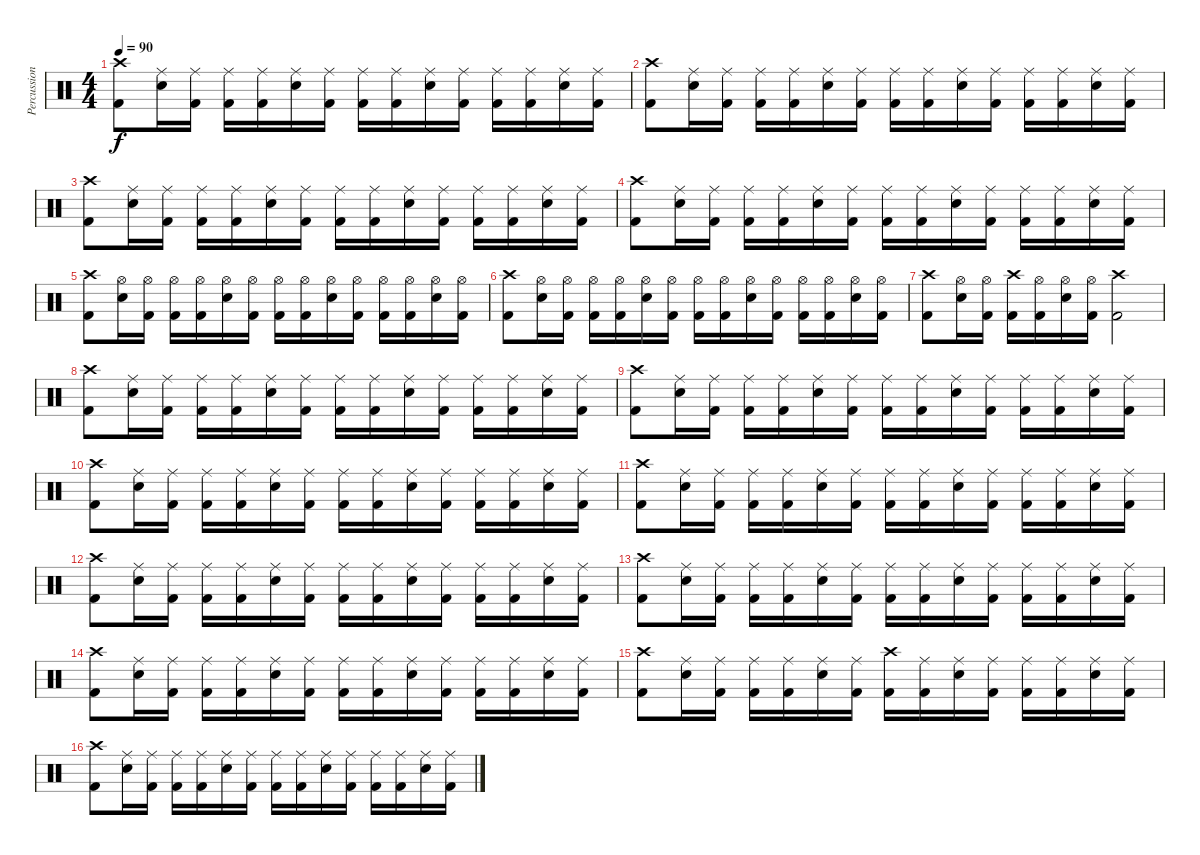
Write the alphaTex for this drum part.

\track ("Percussions" "Percussion") {instrument percussion}
\staff {score}
\articulation defaults
\ts (4 4)
\tempo 90
\clef neutral
\ks c
("Crash high (hit)" "Kick (hit) 2").8{dy f} ("Ride (middle)" "Snare (hit) 2").16 ("Ride (middle)" "Kick (hit) 2").16 ("Ride (middle)" "Kick (hit) 2").16 ("Ride (middle)" "Kick (hit) 2").16 ("Ride (middle)" "Snare (hit) 2").16 ("Ride (middle)" "Kick (hit) 2").16 ("Ride (middle)" "Kick (hit) 2").16 ("Ride (middle)" "Kick (hit) 2").16 ("Ride (middle)" "Snare (hit) 2").16 ("Ride (middle)" "Kick (hit) 2").16 ("Ride (middle)" "Kick (hit) 2").16 ("Ride (middle)" "Kick (hit) 2").16 ("Ride (middle)" "Snare (hit) 2").16 ("Ride (middle)" "Kick (hit) 2").16 |
("Crash high (hit)" "Kick (hit) 2").8 ("Ride (middle)" "Snare (hit) 2").16 ("Ride (middle)" "Kick (hit) 2").16 ("Ride (middle)" "Kick (hit) 2").16 ("Ride (middle)" "Kick (hit) 2").16 ("Ride (middle)" "Snare (hit) 2").16 ("Ride (middle)" "Kick (hit) 2").16 ("Ride (middle)" "Kick (hit) 2").16 ("Ride (middle)" "Kick (hit) 2").16 ("Ride (middle)" "Snare (hit) 2").16 ("Ride (middle)" "Kick (hit) 2").16 ("Ride (middle)" "Kick (hit) 2").16 ("Ride (middle)" "Kick (hit) 2").16 ("Ride (middle)" "Snare (hit) 2").16 ("Ride (middle)" "Kick (hit) 2").16 |
("Crash high (hit)" "Kick (hit) 2").8 ("Ride (middle)" "Snare (hit) 2").16 ("Ride (middle)" "Kick (hit) 2").16 ("Ride (middle)" "Kick (hit) 2").16 ("Ride (middle)" "Kick (hit) 2").16 ("Ride (middle)" "Snare (hit) 2").16 ("Ride (middle)" "Kick (hit) 2").16 ("Ride (middle)" "Kick (hit) 2").16 ("Ride (middle)" "Kick (hit) 2").16 ("Ride (middle)" "Snare (hit) 2").16 ("Ride (middle)" "Kick (hit) 2").16 ("Ride (middle)" "Kick (hit) 2").16 ("Ride (middle)" "Kick (hit) 2").16 ("Ride (middle)" "Snare (hit) 2").16 ("Ride (middle)" "Kick (hit) 2").16 |
("Crash high (hit)" "Kick (hit) 2").8 ("Ride (middle)" "Snare (hit) 2").16 ("Ride (middle)" "Kick (hit) 2").16 ("Ride (middle)" "Kick (hit) 2").16 ("Ride (middle)" "Kick (hit) 2").16 ("Ride (middle)" "Snare (hit) 2").16 ("Ride (middle)" "Kick (hit) 2").16 ("Ride (middle)" "Kick (hit) 2").16 ("Ride (middle)" "Kick (hit) 2").16 ("Ride (middle)" "Snare (hit) 2").16 ("Ride (middle)" "Kick (hit) 2").16 ("Ride (middle)" "Kick (hit) 2").16 ("Ride (middle)" "Kick (hit) 2").16 ("Ride (middle)" "Snare (hit) 2").16 ("Ride (middle)" "Kick (hit) 2").16 |
("Crash high (hit)" "Kick (hit) 2").8 ("Hi-Hat (open)" "Snare (hit) 2").16 ("Hi-Hat (open)" "Kick (hit) 2").16 ("Hi-Hat (open)" "Kick (hit) 2").16 ("Hi-Hat (open)" "Kick (hit) 2").16 ("Hi-Hat (open)" "Snare (hit) 2").16 ("Hi-Hat (open)" "Kick (hit) 2").16 ("Hi-Hat (open)" "Kick (hit) 2").16 ("Hi-Hat (open)" "Kick (hit) 2").16 ("Hi-Hat (open)" "Snare (hit) 2").16 ("Hi-Hat (open)" "Kick (hit) 2").16 ("Hi-Hat (open)" "Kick (hit) 2").16 ("Hi-Hat (open)" "Kick (hit) 2").16 ("Hi-Hat (open)" "Snare (hit) 2").16 ("Hi-Hat (open)" "Kick (hit) 2").16 |
("Crash high (hit)" "Kick (hit) 2").8 ("Hi-Hat (open)" "Snare (hit) 2").16 ("Hi-Hat (open)" "Kick (hit) 2").16 ("Hi-Hat (open)" "Kick (hit) 2").16 ("Hi-Hat (open)" "Kick (hit) 2").16 ("Hi-Hat (open)" "Snare (hit) 2").16 ("Hi-Hat (open)" "Kick (hit) 2").16 ("Hi-Hat (open)" "Kick (hit) 2").16 ("Hi-Hat (open)" "Kick (hit) 2").16 ("Hi-Hat (open)" "Snare (hit) 2").16 ("Hi-Hat (open)" "Kick (hit) 2").16 ("Hi-Hat (open)" "Kick (hit) 2").16 ("Hi-Hat (open)" "Kick (hit) 2").16 ("Hi-Hat (open)" "Snare (hit) 2").16 ("Hi-Hat (open)" "Kick (hit) 2").16 |
("Crash high (hit)" "Kick (hit) 2").8 ("Hi-Hat (open)" "Snare (hit) 2").16 ("Hi-Hat (open)" "Kick (hit) 2").16 ("Crash high (hit)" "Kick (hit) 2").16 ("Hi-Hat (open)" "Kick (hit) 2").16 ("Hi-Hat (open)" "Snare (hit) 2").16 ("Hi-Hat (open)" "Kick (hit) 2").16 ("Crash high (hit)" "Kick (hit) 2").2 |
("Crash high (hit)" "Kick (hit) 2").8 ("Ride (middle)" "Snare (hit) 2").16 ("Ride (middle)" "Kick (hit) 2").16 ("Ride (middle)" "Kick (hit) 2").16 ("Ride (middle)" "Kick (hit) 2").16 ("Ride (middle)" "Snare (hit) 2").16 ("Ride (middle)" "Kick (hit) 2").16 ("Ride (middle)" "Kick (hit) 2").16 ("Ride (middle)" "Kick (hit) 2").16 ("Ride (middle)" "Snare (hit) 2").16 ("Ride (middle)" "Kick (hit) 2").16 ("Ride (middle)" "Kick (hit) 2").16 ("Ride (middle)" "Kick (hit) 2").16 ("Ride (middle)" "Snare (hit) 2").16 ("Ride (middle)" "Kick (hit) 2").16 |
("Crash high (hit)" "Kick (hit) 2").8 ("Ride (middle)" "Snare (hit) 2").16 ("Ride (middle)" "Kick (hit) 2").16 ("Ride (middle)" "Kick (hit) 2").16 ("Ride (middle)" "Kick (hit) 2").16 ("Ride (middle)" "Snare (hit) 2").16 ("Ride (middle)" "Kick (hit) 2").16 ("Ride (middle)" "Kick (hit) 2").16 ("Ride (middle)" "Kick (hit) 2").16 ("Ride (middle)" "Snare (hit) 2").16 ("Ride (middle)" "Kick (hit) 2").16 ("Ride (middle)" "Kick (hit) 2").16 ("Ride (middle)" "Kick (hit) 2").16 ("Ride (middle)" "Snare (hit) 2").16 ("Ride (middle)" "Kick (hit) 2").16 |
("Crash high (hit)" "Kick (hit) 2").8 ("Ride (middle)" "Snare (hit) 2").16 ("Ride (middle)" "Kick (hit) 2").16 ("Ride (middle)" "Kick (hit) 2").16 ("Ride (middle)" "Kick (hit) 2").16 ("Ride (middle)" "Snare (hit) 2").16 ("Ride (middle)" "Kick (hit) 2").16 ("Ride (middle)" "Kick (hit) 2").16 ("Ride (middle)" "Kick (hit) 2").16 ("Ride (middle)" "Snare (hit) 2").16 ("Ride (middle)" "Kick (hit) 2").16 ("Ride (middle)" "Kick (hit) 2").16 ("Ride (middle)" "Kick (hit) 2").16 ("Ride (middle)" "Snare (hit) 2").16 ("Ride (middle)" "Kick (hit) 2").16 |
("Crash high (hit)" "Kick (hit) 2").8 ("Ride (middle)" "Snare (hit) 2").16 ("Ride (middle)" "Kick (hit) 2").16 ("Ride (middle)" "Kick (hit) 2").16 ("Ride (middle)" "Kick (hit) 2").16 ("Ride (middle)" "Snare (hit) 2").16 ("Ride (middle)" "Kick (hit) 2").16 ("Ride (middle)" "Kick (hit) 2").16 ("Ride (middle)" "Kick (hit) 2").16 ("Ride (middle)" "Snare (hit) 2").16 ("Ride (middle)" "Kick (hit) 2").16 ("Ride (middle)" "Kick (hit) 2").16 ("Ride (middle)" "Kick (hit) 2").16 ("Ride (middle)" "Snare (hit) 2").16 ("Ride (middle)" "Kick (hit) 2").16 |
("Crash high (hit)" "Kick (hit) 2").8 ("Ride (middle)" "Snare (hit) 2").16 ("Ride (middle)" "Kick (hit) 2").16 ("Ride (middle)" "Kick (hit) 2").16 ("Ride (middle)" "Kick (hit) 2").16 ("Ride (middle)" "Snare (hit) 2").16 ("Ride (middle)" "Kick (hit) 2").16 ("Ride (middle)" "Kick (hit) 2").16 ("Ride (middle)" "Kick (hit) 2").16 ("Ride (middle)" "Snare (hit) 2").16 ("Ride (middle)" "Kick (hit) 2").16 ("Ride (middle)" "Kick (hit) 2").16 ("Ride (middle)" "Kick (hit) 2").16 ("Ride (middle)" "Snare (hit) 2").16 ("Ride (middle)" "Kick (hit) 2").16 |
("Crash high (hit)" "Kick (hit) 2").8 ("Ride (middle)" "Snare (hit) 2").16 ("Ride (middle)" "Kick (hit) 2").16 ("Ride (middle)" "Kick (hit) 2").16 ("Ride (middle)" "Kick (hit) 2").16 ("Ride (middle)" "Snare (hit) 2").16 ("Ride (middle)" "Kick (hit) 2").16 ("Ride (middle)" "Kick (hit) 2").16 ("Ride (middle)" "Kick (hit) 2").16 ("Ride (middle)" "Snare (hit) 2").16 ("Ride (middle)" "Kick (hit) 2").16 ("Ride (middle)" "Kick (hit) 2").16 ("Ride (middle)" "Kick (hit) 2").16 ("Ride (middle)" "Snare (hit) 2").16 ("Ride (middle)" "Kick (hit) 2").16 |
("Crash high (hit)" "Kick (hit) 2").8 ("Ride (middle)" "Snare (hit) 2").16 ("Ride (middle)" "Kick (hit) 2").16 ("Ride (middle)" "Kick (hit) 2").16 ("Ride (middle)" "Kick (hit) 2").16 ("Ride (middle)" "Snare (hit) 2").16 ("Ride (middle)" "Kick (hit) 2").16 ("Ride (middle)" "Kick (hit) 2").16 ("Ride (middle)" "Kick (hit) 2").16 ("Ride (middle)" "Snare (hit) 2").16 ("Ride (middle)" "Kick (hit) 2").16 ("Ride (middle)" "Kick (hit) 2").16 ("Ride (middle)" "Kick (hit) 2").16 ("Ride (middle)" "Snare (hit) 2").16 ("Ride (middle)" "Kick (hit) 2").16 |
("Crash high (hit)" "Kick (hit) 2").8 ("Ride (middle)" "Snare (hit) 2").16 ("Ride (middle)" "Kick (hit) 2").16 ("Ride (middle)" "Kick (hit) 2").16 ("Ride (middle)" "Kick (hit) 2").16 ("Ride (middle)" "Snare (hit) 2").16 ("Ride (middle)" "Kick (hit) 2").16 ("Crash high (hit)" "Kick (hit) 2").16 ("Ride (middle)" "Kick (hit) 2").16 ("Ride (middle)" "Snare (hit) 2").16 ("Ride (middle)" "Kick (hit) 2").16 ("Ride (middle)" "Kick (hit) 2").16 ("Ride (middle)" "Kick (hit) 2").16 ("Ride (middle)" "Snare (hit) 2").16 ("Ride (middle)" "Kick (hit) 2").16 |
("Crash high (hit)" "Kick (hit) 2").8 ("Ride (middle)" "Snare (hit) 2").16 ("Ride (middle)" "Kick (hit) 2").16 ("Ride (middle)" "Kick (hit) 2").16 ("Ride (middle)" "Kick (hit) 2").16 ("Ride (middle)" "Snare (hit) 2").16 ("Ride (middle)" "Kick (hit) 2").16 ("Ride (middle)" "Kick (hit) 2").16 ("Ride (middle)" "Kick (hit) 2").16 ("Ride (middle)" "Snare (hit) 2").16 ("Ride (middle)" "Kick (hit) 2").16 ("Ride (middle)" "Kick (hit) 2").16 ("Ride (middle)" "Kick (hit) 2").16 ("Ride (middle)" "Snare (hit) 2").16 ("Ride (middle)" "Kick (hit) 2").16
